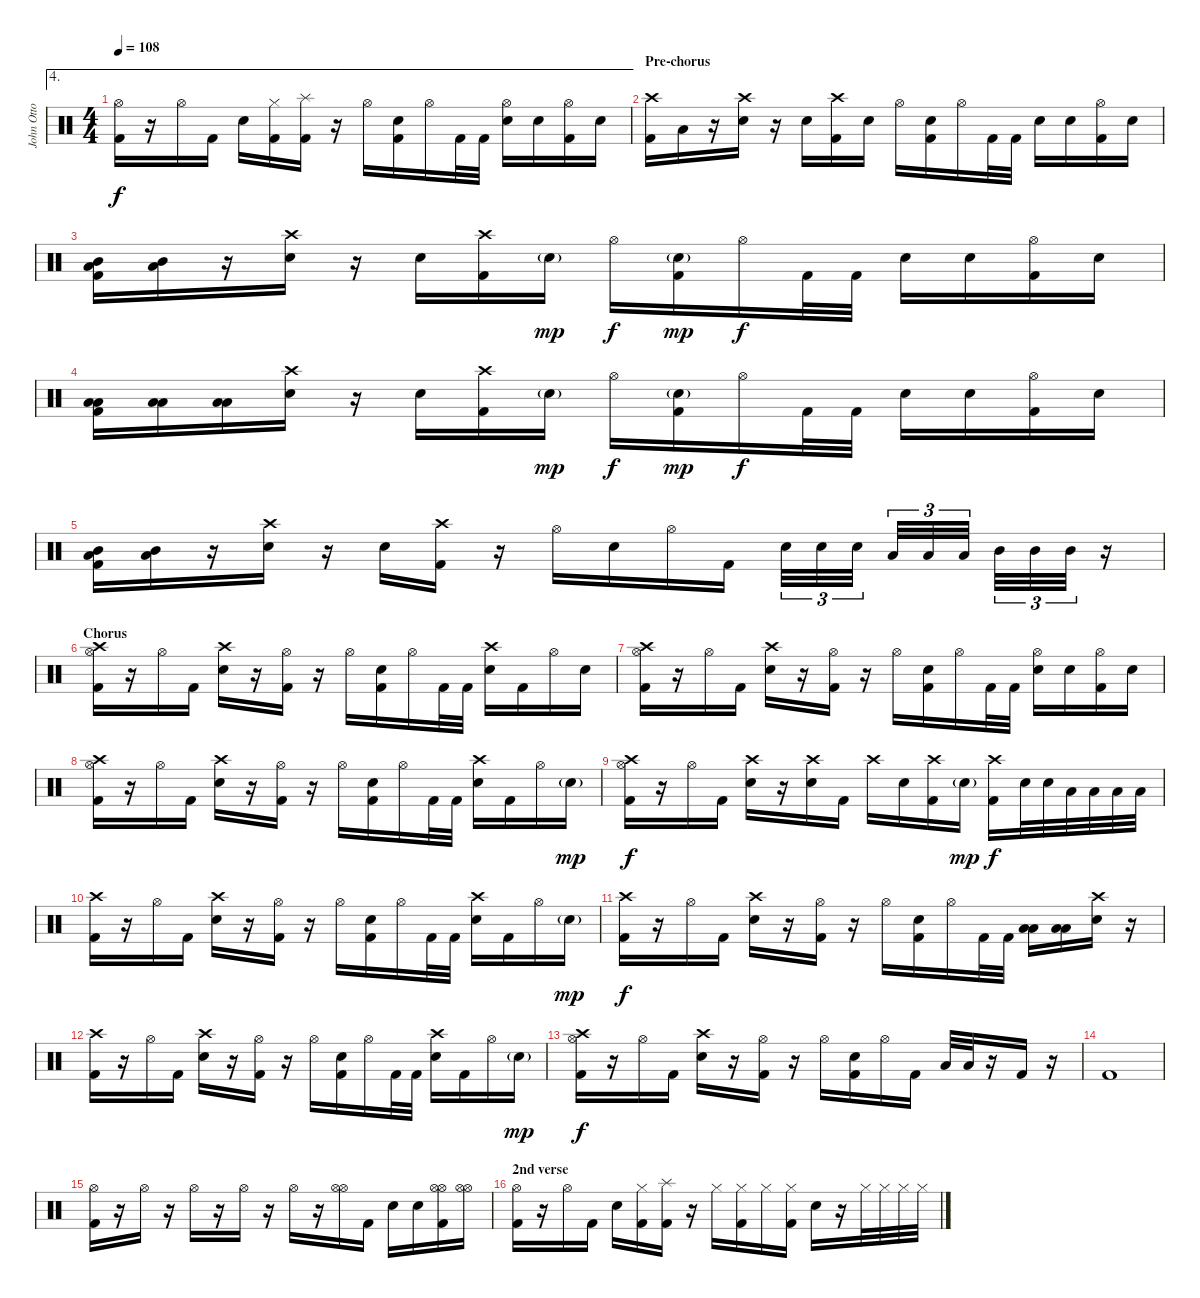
\track ("John Otto" "John Otto") {instrument percussion}
\staff {score}
\articulation defaults
\ae 4
\ts (4 4)
\tempo 108
\clef neutral
\ks c
("Hi-Hat (open)" "Kick (hit) 2").16{dy f} r.16 "Hi-Hat (open)".16 "Kick (hit) 2".16 "Snare (hit) 2".16 ("Hi-Hat (closed)" "Kick (hit) 2").16 ("Splash (hit)" "Kick (hit) 2").16 r.16 "Hi-Hat (open)".16 ("Snare (hit) 2" "Kick (hit) 2").16 "Hi-Hat (open)".16 "Kick (hit) 2".32 "Kick (hit) 2".32 ("Hi-Hat (open)" "Snare (hit) 2").16 "Snare (hit) 2".16 ("Hi-Hat (open)" "Kick (hit) 2").16 "Snare (hit) 2".16 |
\section ("" "Pre-chorus")
("Crash high (hit)" "Kick (hit) 2").16 "Low Floor Tom (hit)".16 r.16 ("Crash high (hit)" "Snare (hit) 2").16 r.16 "Snare (hit) 2".16 ("Crash high (hit)" "Kick (hit) 2").16 "Snare (hit) 2".16 "Hi-Hat (open)".16 ("Snare (hit) 2" "Kick (hit) 2").16 "Hi-Hat (open)".16 "Kick (hit) 2".32 "Kick (hit) 2".32 "Snare (hit) 2".16 "Snare (hit) 2".16 ("Hi-Hat (open)" "Kick (hit) 2").16 "Snare (hit) 2".16 |
("Mid Tom (hit)" "Low Tom (hit)" "Kick (hit) 2").16 ("Mid Tom (hit)" "Low Tom (hit)").16 r.16 ("Crash high (hit)" "Snare (hit) 2").16 r.16 "Snare (hit) 2".16 ("Crash high (hit)" "Kick (hit) 2").16 "Snare (hit) 2"{g}.16{dy mp} "Hi-Hat (open)".16{dy f} ("Snare (hit) 2"{g} "Kick (hit) 2").16{dy mp} "Hi-Hat (open)".16{dy f} "Kick (hit) 2".32 "Kick (hit) 2".32 "Snare (hit) 2".16 "Snare (hit) 2".16 ("Hi-Hat (open)" "Kick (hit) 2").16 "Snare (hit) 2".16 |
("Low Floor Tom (hit)" "Low Tom (hit)" "Kick (hit) 2").16 ("Low Floor Tom (hit)" "Low Tom (hit)").16 ("Low Floor Tom (hit)" "Low Tom (hit)").16 ("Crash high (hit)" "Snare (hit) 2").16 r.16 "Snare (hit) 2".16 ("Crash high (hit)" "Kick (hit) 2").16 "Snare (hit) 2"{g}.16{dy mp} "Hi-Hat (open)".16{dy f} ("Snare (hit) 2"{g} "Kick (hit) 2").16{dy mp} "Hi-Hat (open)".16{dy f} "Kick (hit) 2".32 "Kick (hit) 2".32 "Snare (hit) 2".16 "Snare (hit) 2".16 ("Hi-Hat (open)" "Kick (hit) 2").16 "Snare (hit) 2".16 |
("Mid Tom (hit)" "Low Tom (hit)" "Kick (hit) 2").16 ("Mid Tom (hit)" "Low Tom (hit)").16 r.16 ("Crash high (hit)" "Snare (hit) 2").16 r.16 "Snare (hit) 2".16 ("Crash high (hit)" "Kick (hit) 2").16 r.16 "Hi-Hat (open)".16 "Snare (hit) 2".16 "Hi-Hat (open)".16 "Kick (hit) 2".16 "Snare (hit) 2".32{tu (3 2)} "Snare (hit) 2".32{tu (3 2)} "Snare (hit) 2".32{tu (3 2)} "Low Floor Tom (hit)".32{tu (3 2)} "Low Floor Tom (hit)".32{tu (3 2)} "Low Floor Tom (hit)".32{tu (3 2)} "Mid Tom (hit)".32{tu (3 2)} "Mid Tom (hit)".32{tu (3 2)} "Mid Tom (hit)".32{tu (3 2)} r.16 |
\section ("" "Chorus")
("Crash high (hit)" "Hi-Hat (open)" "Kick (hit) 2").16 r.16 "Hi-Hat (open)".16 "Kick (hit) 2".16 ("Crash high (hit)" "Snare (hit) 2").16 r.16 ("Hi-Hat (open)" "Kick (hit) 2").16 r.16 "Hi-Hat (open)".16 ("Snare (hit) 2" "Kick (hit) 2").16 "Hi-Hat (open)".16 "Kick (hit) 2".32 "Kick (hit) 2".32 ("Crash high (hit)" "Snare (hit) 2").16 "Kick (hit) 2".16 "Hi-Hat (open)".16 "Snare (hit) 2".16 |
("Crash high (hit)" "Hi-Hat (open)" "Kick (hit) 2").16 r.16 "Hi-Hat (open)".16 "Kick (hit) 2".16 ("Crash high (hit)" "Snare (hit) 2").16 r.16 ("Hi-Hat (open)" "Kick (hit) 2").16 r.16 "Hi-Hat (open)".16 ("Snare (hit) 2" "Kick (hit) 2").16 "Hi-Hat (open)".16 "Kick (hit) 2".32 "Kick (hit) 2".32 ("Hi-Hat (open)" "Snare (hit) 2").16 "Snare (hit) 2".16 ("Hi-Hat (open)" "Kick (hit) 2").16 "Snare (hit) 2".16 |
("Crash high (hit)" "Hi-Hat (open)" "Kick (hit) 2").16 r.16 "Hi-Hat (open)".16 "Kick (hit) 2".16 ("Crash high (hit)" "Snare (hit) 2").16 r.16 ("Hi-Hat (open)" "Kick (hit) 2").16 r.16 "Hi-Hat (open)".16 ("Snare (hit) 2" "Kick (hit) 2").16 "Hi-Hat (open)".16 "Kick (hit) 2".32 "Kick (hit) 2".32 ("Crash high (hit)" "Snare (hit) 2").16 "Kick (hit) 2".16 "Hi-Hat (open)".16 "Snare (hit) 2"{g}.16{dy mp} |
("Crash high (hit)" "Hi-Hat (open)" "Kick (hit) 2").16{dy f} r.16 "Hi-Hat (open)".16 "Kick (hit) 2".16 ("Crash high (hit)" "Snare (hit) 2").16 r.16 ("Crash high (hit)" "Snare (hit) 2").16 "Kick (hit) 2".16 "Crash high (hit)".16 "Snare (hit) 2".16 ("Crash high (hit)" "Kick (hit) 2").16 "Snare (hit) 2"{g}.16{dy mp} ("Crash high (hit)" "Kick (hit) 2").16{dy f} "Snare (hit) 2".32 "Snare (hit) 2".32 "Low Floor Tom (hit)".32 "Low Floor Tom (hit)".32 "Low Floor Tom (hit)".32 "Low Floor Tom (hit)".32 |
("Crash high (hit)" "Kick (hit) 2").16 r.16 "Hi-Hat (open)".16 "Kick (hit) 2".16 ("Crash high (hit)" "Snare (hit) 2").16 r.16 ("Hi-Hat (open)" "Kick (hit) 2").16 r.16 "Hi-Hat (open)".16 ("Snare (hit) 2" "Kick (hit) 2").16 "Hi-Hat (open)".16 "Kick (hit) 2".32 "Kick (hit) 2".32 ("Crash high (hit)" "Snare (hit) 2").16 "Kick (hit) 2".16 "Hi-Hat (open)".16 "Snare (hit) 2"{g}.16{dy mp} |
("Crash high (hit)" "Kick (hit) 2").16{dy f} r.16 "Hi-Hat (open)".16 "Kick (hit) 2".16 ("Crash high (hit)" "Snare (hit) 2").16 r.16 ("Hi-Hat (open)" "Kick (hit) 2").16 r.16 "Hi-Hat (open)".16 ("Snare (hit) 2" "Kick (hit) 2").16 "Hi-Hat (open)".16 "Kick (hit) 2".32 "Kick (hit) 2".32 ("Low Floor Tom (hit)" "Low Tom (hit)").16 ("Low Floor Tom (hit)" "Low Tom (hit)").16 ("Crash high (hit)" "Snare (hit) 2").16 r.16 |
("Crash high (hit)" "Kick (hit) 2").16 r.16 "Hi-Hat (open)".16 "Kick (hit) 2".16 ("Crash high (hit)" "Snare (hit) 2").16 r.16 ("Hi-Hat (open)" "Kick (hit) 2").16 r.16 "Hi-Hat (open)".16 ("Snare (hit) 2" "Kick (hit) 2").16 "Hi-Hat (open)".16 "Kick (hit) 2".32 "Kick (hit) 2".32 ("Crash high (hit)" "Snare (hit) 2").16 "Kick (hit) 2".16 "Hi-Hat (open)".16 "Snare (hit) 2"{g}.16{dy mp} |
("Crash high (hit)" "Hi-Hat (open)" "Kick (hit) 2").16{dy f} r.16 "Hi-Hat (open)".16 "Kick (hit) 2".16 ("Crash high (hit)" "Snare (hit) 2").16 r.16 ("Hi-Hat (open)" "Kick (hit) 2").16 r.16 "Hi-Hat (open)".16 ("Snare (hit) 2" "Kick (hit) 2").16 "Hi-Hat (open)".16 "Kick (hit) 2".16 "Low Floor Tom (hit)".32 "Low Floor Tom (hit)".32 r.16 "Kick (hit) 2".16 r.16 |
"Kick (hit) 2".1 |
("Hi-Hat (open)" "Kick (hit) 2").16 r.16 "Hi-Hat (open)".16 r.16 "Hi-Hat (open)".16 r.16 "Hi-Hat (open)".16 r.16 "Hi-Hat (open)".16 r.16 ("Hi-Hat (open)" "Hi-Hat (open)").16 "Kick (hit) 2".16 "Snare (hit) 2".16 "Snare (hit) 2".16 ("Hi-Hat (open)" "Hi-Hat (open)" "Kick (hit) 2").16 ("Hi-Hat (open)" "Hi-Hat (open)").16 |
\section ("" "2nd verse")
("Hi-Hat (open)" "Kick (hit) 2").16 r.16 "Hi-Hat (open)".16 "Kick (hit) 2".16 "Snare (hit) 2".16 ("Hi-Hat (closed)" "Kick (hit) 2").16 ("Splash (hit)" "Kick (hit) 2").16 r.16 "Hi-Hat (closed)".16 ("Hi-Hat (closed)" "Kick (hit) 2").16 "Hi-Hat (closed)".16 ("Hi-Hat (closed)" "Kick (hit) 2").16 "Snare (hit) 2".16 r.16 "Hi-Hat (closed)".32 "Hi-Hat (closed)".32 "Hi-Hat (closed)".32 "Hi-Hat (closed)".32
